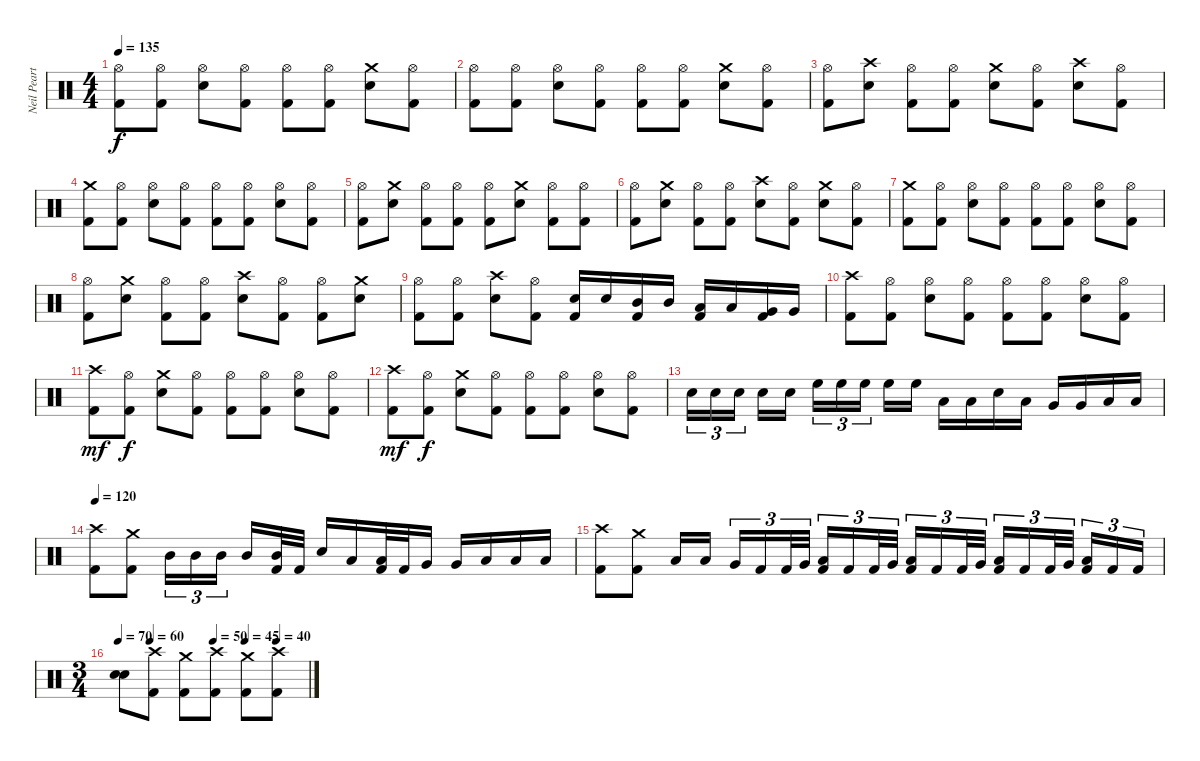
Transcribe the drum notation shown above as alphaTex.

\track ("Neil Peart" "Neil Peart") {instrument percussion}
\staff {score}
\articulation defaults
\ts (4 4)
\tempo 135
\clef neutral
\ks c
("Hi-Hat (open)" "Kick (hit) 2").8{dy f} ("Hi-Hat (open)" "Kick (hit) 2").8 ("Hi-Hat (open)" "Snare (hit) 2").8 ("Hi-Hat (open)" "Kick (hit) 2").8 ("Hi-Hat (open)" "Kick (hit) 2").8 ("Hi-Hat (open)" "Kick (hit) 2").8 ("Crash medium (hit)" "Snare (hit) 2").8 ("Hi-Hat (open)" "Kick (hit) 2").8 |
("Hi-Hat (open)" "Kick (hit) 2").8 ("Hi-Hat (open)" "Kick (hit) 2").8 ("Hi-Hat (open)" "Snare (hit) 2").8 ("Hi-Hat (open)" "Kick (hit) 2").8 ("Hi-Hat (open)" "Kick (hit) 2").8 ("Hi-Hat (open)" "Kick (hit) 2").8 ("Crash medium (hit)" "Snare (hit) 2").8 ("Hi-Hat (open)" "Kick (hit) 2").8 |
("Hi-Hat (open)" "Kick (hit) 2").8 ("Crash high (hit)" "Snare (hit) 2").8 ("Hi-Hat (open)" "Kick (hit) 2").8 ("Hi-Hat (open)" "Kick (hit) 2").8 ("Crash medium (hit)" "Snare (hit) 2").8 ("Hi-Hat (open)" "Kick (hit) 2").8 ("Crash high (hit)" "Snare (hit) 2").8 ("Hi-Hat (open)" "Kick (hit) 2").8 |
("Crash medium (hit)" "Kick (hit) 2").8 ("Hi-Hat (open)" "Kick (hit) 2").8 ("Hi-Hat (open)" "Snare (hit) 2").8 ("Hi-Hat (open)" "Kick (hit) 2").8 ("Hi-Hat (open)" "Kick (hit) 2").8 ("Hi-Hat (open)" "Kick (hit) 2").8 ("Hi-Hat (open)" "Snare (hit) 2").8 ("Hi-Hat (open)" "Kick (hit) 2").8 |
("Hi-Hat (open)" "Kick (hit) 2").8 ("Crash medium (hit)" "Snare (hit) 2").8 ("Hi-Hat (open)" "Kick (hit) 2").8 ("Hi-Hat (open)" "Kick (hit) 2").8 ("Hi-Hat (open)" "Kick (hit) 2").8 ("Crash medium (hit)" "Snare (hit) 2").8 ("Hi-Hat (open)" "Kick (hit) 2").8 ("Hi-Hat (open)" "Kick (hit) 2").8 |
("Hi-Hat (open)" "Kick (hit) 2").8 ("Crash medium (hit)" "Snare (hit) 2").8 ("Hi-Hat (open)" "Kick (hit) 2").8 ("Hi-Hat (open)" "Kick (hit) 2").8 ("Crash high (hit)" "Snare (hit) 2").8 ("Hi-Hat (open)" "Kick (hit) 2").8 ("Crash medium (hit)" "Snare (hit) 2").8 ("Hi-Hat (open)" "Kick (hit) 2").8 |
("Crash medium (hit)" "Kick (hit) 2").8 ("Hi-Hat (open)" "Kick (hit) 2").8 ("Hi-Hat (open)" "Snare (hit) 2").8 ("Hi-Hat (open)" "Kick (hit) 2").8 ("Hi-Hat (open)" "Kick (hit) 2").8 ("Hi-Hat (open)" "Kick (hit) 2").8 ("Hi-Hat (open)" "Snare (hit) 2").8 ("Hi-Hat (open)" "Kick (hit) 2").8 |
("Hi-Hat (open)" "Kick (hit) 2").8 ("Crash medium (hit)" "Snare (hit) 2").8 ("Hi-Hat (open)" "Kick (hit) 2").8 ("Hi-Hat (open)" "Kick (hit) 2").8 ("Crash high (hit)" "Snare (hit) 2").8 ("Hi-Hat (open)" "Kick (hit) 2").8 ("Hi-Hat (open)" "Kick (hit) 2").8 ("Crash medium (hit)" "Snare (hit) 2").8 |
("Hi-Hat (open)" "Kick (hit) 2").8 ("Hi-Hat (open)" "Kick (hit) 2").8 ("Crash high (hit)" "Snare (hit) 2").8 ("Hi-Hat (open)" "Kick (hit) 2").8 ("Snare (hit) 2" "Kick (hit) 2").16 "Snare (hit) 2".16 ("Mid Tom (hit)" "Kick (hit) 2").16 "Mid Tom (hit)".16 ("Low Tom (hit)" "Kick (hit) 2").16 "Low Tom (hit)".16 ("Very Low Tom (hit)" "Kick (hit) 2").16 "Very Low Tom (hit)".16 |
("Crash high (hit)" "Kick (hit) 2").8 ("Hi-Hat (open)" "Kick (hit) 2").8 ("Hi-Hat (open)" "Snare (hit) 2").8 ("Hi-Hat (open)" "Kick (hit) 2").8 ("Hi-Hat (open)" "Kick (hit) 2").8 ("Hi-Hat (open)" "Kick (hit) 2").8 ("Hi-Hat (open)" "Snare (hit) 2").8 ("Hi-Hat (open)" "Kick (hit) 2").8 |
("Crash high (hit)" "Kick (hit) 2").8{dy mf} ("Hi-Hat (open)" "Kick (hit) 2").8{dy f} ("Crash medium (hit)" "Snare (hit) 2").8 ("Hi-Hat (open)" "Kick (hit) 2").8 ("Hi-Hat (open)" "Kick (hit) 2").8 ("Hi-Hat (open)" "Kick (hit) 2").8 ("Hi-Hat (open)" "Snare (hit) 2").8 ("Hi-Hat (open)" "Kick (hit) 2").8 |
("Crash high (hit)" "Kick (hit) 2").8{dy mf} ("Hi-Hat (open)" "Kick (hit) 2").8{dy f} ("Crash medium (hit)" "Snare (hit) 2").8 ("Hi-Hat (open)" "Kick (hit) 2").8 ("Hi-Hat (open)" "Kick (hit) 2").8 ("Hi-Hat (open)" "Kick (hit) 2").8 ("Hi-Hat (open)" "Snare (hit) 2").8 ("Hi-Hat (open)" "Kick (hit) 2").8 |
"Snare (hit) 2".16{tu (3 2)} "Snare (hit) 2".16{tu (3 2)} "Snare (hit) 2".16{tu (3 2) beam splitsecondary} "Snare (hit) 2".16 "Snare (hit) 2".16 "High Floor Tom (hit)".16{tu (3 2)} "High Floor Tom (hit)".16{tu (3 2)} "High Floor Tom (hit)".16{tu (3 2) beam splitsecondary} "High Floor Tom (hit)".16 "High Floor Tom (hit)".16 "Low Tom (hit)".16 "Low Tom (hit)".16 "Snare (hit) 2".16 "Low Tom (hit)".16 "Very Low Tom (hit)".16 "Very Low Tom (hit)".16 "Low Floor Tom (hit)".16 "Low Floor Tom (hit)".16 |
\tempo 120
("Crash high (hit)" "Kick (hit) 2").8 ("Crash medium (hit)" "Kick (hit) 2").8 "Mid Tom (hit)".16{tu (3 2)} "Mid Tom (hit)".16{tu (3 2)} "Mid Tom (hit)".16{tu (3 2) beam splitsecondary} "Mid Tom (hit)".16 ("Mid Tom (hit)" "Kick (hit) 2").32 "Kick (hit) 2".32 "Snare (hit) 2".16 "Low Tom (hit)".16 ("Low Tom (hit)" "Kick (hit) 2").32 "Kick (hit) 2".32 "Very Low Tom (hit)".16 "Very Low Tom (hit)".16 "Low Floor Tom (hit)".16 "Low Floor Tom (hit)".16 "Low Floor Tom (hit)".16 |
("Crash high (hit)" "Kick (hit) 2").8 ("Crash medium (hit)" "Kick (hit) 2").8 "Low Tom (hit)".16 "Low Tom (hit)".16{beam splitsecondary} "Very Low Tom (hit)".16{tu (3 2)} "Kick (hit) 2".16{tu (3 2)} "Kick (hit) 2".32{tu (3 2)} "Very Low Tom (hit)".32{tu (3 2)} ("Low Tom (hit)" "Kick (hit) 2").16{tu (3 2)} "Kick (hit) 2".16{tu (3 2)} "Kick (hit) 2".32{tu (3 2)} "Very Low Tom (hit)".32{tu (3 2) beam splitsecondary} ("Low Tom (hit)" "Kick (hit) 2").16{tu (3 2)} "Kick (hit) 2".16{tu (3 2)} "Kick (hit) 2".32{tu (3 2)} "Very Low Tom (hit)".32{tu (3 2)} ("Low Tom (hit)" "Kick (hit) 2").16{tu (3 2)} "Kick (hit) 2".16{tu (3 2)} "Kick (hit) 2".32{tu (3 2)} "Very Low Tom (hit)".32{tu (3 2) beam splitsecondary} ("Low Tom (hit)" "Kick (hit) 2").16{tu (3 2)} "Kick (hit) 2".16{tu (3 2)} "Kick (hit) 2".16{tu (3 2)} |
\ts (3 4)
\tempo 70
\tempo (60 0.16666666666666666)
\tempo (50 0.5)
\tempo (45 0.6666666666666666)
\tempo (40 0.8333333333333334)
("Snare (hit) 2" "Snare (hit) 2").8 ("Crash high (hit)" "Kick (hit) 2").8 ("Crash medium (hit)" "Kick (hit) 2").8 ("Crash high (hit)" "Kick (hit) 2").8 ("Crash medium (hit)" "Kick (hit) 2").8 ("Crash high (hit)" "Kick (hit) 2").8
